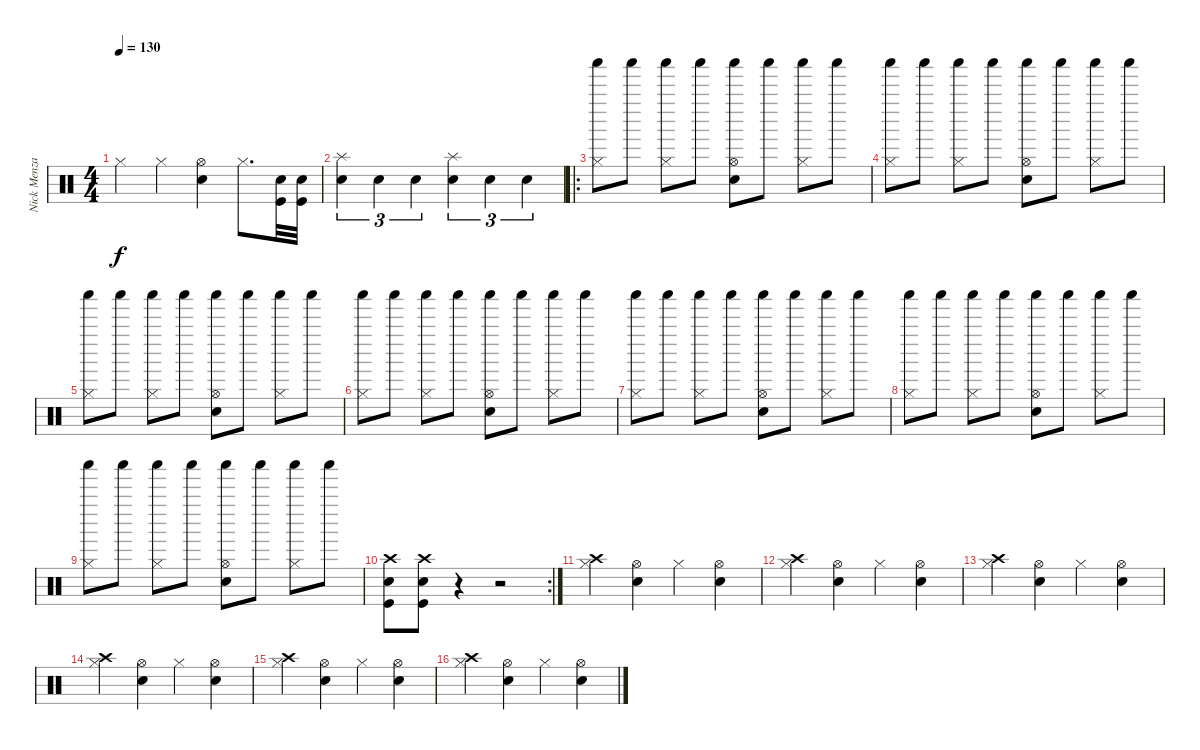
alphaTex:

\track ("Nick Menza" "Nick Menza") {instrument percussion}
\staff {score}
\articulation defaults
\ts (4 4)
\tempo 130
\clef neutral
\ks c "Hi-Hat (closed)".4{dy f} "Hi-Hat (closed)".4
("Snare (hit) 2" "Hi-Hat (open)").4 "Hi-Hat (closed)".8{d} ("Snare (hit) 2" "Kick (hit)").32 ("Snare (hit) 2" "Kick (hit)").32 |
("Splash (hit)" "Snare (hit) 2").4{tu (3 2)} "Snare (hit) 2".4{tu (3 2)} "Snare (hit) 2".4{tu (3 2)} ("Splash (hit)" "Snare (hit) 2").4{tu (3 2)} "Snare (hit) 2".4{tu (3 2)} "Snare (hit) 2".4{tu (3 2)} |
\ro
("Shaker (hit)" "Hi-Hat (closed)").8 "Shaker (hit)".8 ("Shaker (hit)" "Hi-Hat (closed)").8 "Shaker (hit)".8 ("Shaker (hit)" "Hi-Hat (open)" "Snare (hit) 2").8 "Shaker (hit)".8 ("Shaker (hit)" "Hi-Hat (closed)").8 "Shaker (hit)".8 |
("Shaker (hit)" "Hi-Hat (closed)").8 "Shaker (hit)".8 ("Shaker (hit)" "Hi-Hat (closed)").8 "Shaker (hit)".8 ("Shaker (hit)" "Hi-Hat (open)" "Snare (hit) 2").8 "Shaker (hit)".8 ("Shaker (hit)" "Hi-Hat (closed)").8 "Shaker (hit)".8 |
("Shaker (hit)" "Hi-Hat (closed)").8 "Shaker (hit)".8 ("Shaker (hit)" "Hi-Hat (closed)").8 "Shaker (hit)".8 ("Shaker (hit)" "Hi-Hat (open)" "Snare (hit) 2").8 "Shaker (hit)".8 ("Shaker (hit)" "Hi-Hat (closed)").8 "Shaker (hit)".8 |
("Shaker (hit)" "Hi-Hat (closed)").8 "Shaker (hit)".8 ("Shaker (hit)" "Hi-Hat (closed)").8 "Shaker (hit)".8 ("Shaker (hit)" "Hi-Hat (open)" "Snare (hit) 2").8 "Shaker (hit)".8 ("Shaker (hit)" "Hi-Hat (closed)").8 "Shaker (hit)".8 |
("Shaker (hit)" "Hi-Hat (closed)").8 "Shaker (hit)".8 ("Shaker (hit)" "Hi-Hat (closed)").8 "Shaker (hit)".8 ("Shaker (hit)" "Hi-Hat (open)" "Snare (hit) 2").8 "Shaker (hit)".8 ("Shaker (hit)" "Hi-Hat (closed)").8 "Shaker (hit)".8 |
("Shaker (hit)" "Hi-Hat (closed)").8 "Shaker (hit)".8 ("Shaker (hit)" "Hi-Hat (closed)").8 "Shaker (hit)".8 ("Shaker (hit)" "Hi-Hat (open)" "Snare (hit) 2").8 "Shaker (hit)".8 ("Shaker (hit)" "Hi-Hat (closed)").8 "Shaker (hit)".8 |
("Shaker (hit)" "Hi-Hat (closed)").8 "Shaker (hit)".8 ("Shaker (hit)" "Hi-Hat (closed)").8 "Shaker (hit)".8 ("Shaker (hit)" "Hi-Hat (open)" "Snare (hit) 2").8 "Shaker (hit)".8 ("Shaker (hit)" "Hi-Hat (closed)").8 "Shaker (hit)".8 |
\rc 2
("Crash high (hit)" "Snare (hit) 2" "Kick (hit)").8 ("Crash high (hit)" "Snare (hit) 2" "Kick (hit)").8 r.4 r.2 |
("Crash high (hit)" "Hi-Hat (closed)").4 ("Snare (hit) 2" "Hi-Hat (open)").4 "Hi-Hat (closed)".4 ("Snare (hit) 2" "Hi-Hat (open)").4 |
("Crash high (hit)" "Hi-Hat (closed)").4 ("Snare (hit) 2" "Hi-Hat (open)").4 "Hi-Hat (closed)".4 ("Snare (hit) 2" "Hi-Hat (open)").4 |
("Crash high (hit)" "Hi-Hat (closed)").4 ("Snare (hit) 2" "Hi-Hat (open)").4 "Hi-Hat (closed)".4 ("Snare (hit) 2" "Hi-Hat (open)").4 |
("Crash high (hit)" "Hi-Hat (closed)").4 ("Snare (hit) 2" "Hi-Hat (open)").4 "Hi-Hat (closed)".4 ("Snare (hit) 2" "Hi-Hat (open)").4 |
("Crash high (hit)" "Hi-Hat (closed)").4 ("Snare (hit) 2" "Hi-Hat (open)").4 "Hi-Hat (closed)".4 ("Snare (hit) 2" "Hi-Hat (open)").4 |
("Crash high (hit)" "Hi-Hat (closed)").4 ("Snare (hit) 2" "Hi-Hat (open)").4 "Hi-Hat (closed)".4 ("Snare (hit) 2" "Hi-Hat (open)").4
